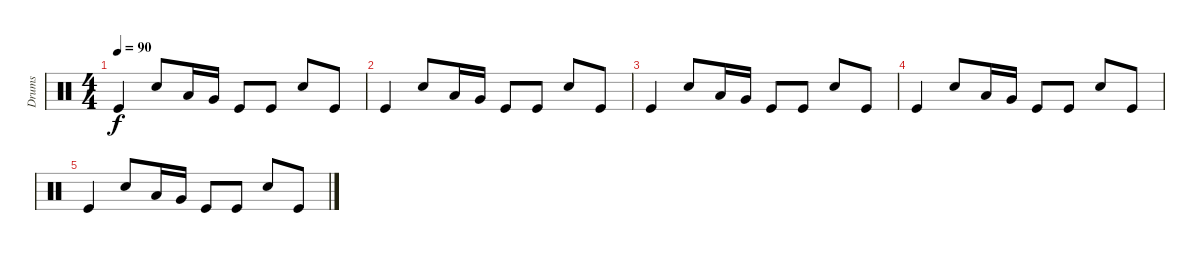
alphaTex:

\track ("Drums" "Drums") {instrument percussion}
\staff {score}
\articulation defaults
\ts (4 4)
\tempo 90
\clef neutral
\ks aminor "Kick (hit)".4{dy f} "Hand Clap (hit)".8 "Low Tom (hit)".16 "Very Low Tom (hit)".16 "Kick (hit)".8 "Kick (hit)".8 "Hand Clap (hit)".8 "Kick (hit)".8
|
"Kick (hit)".4 "Hand Clap (hit)".8 "Low Tom (hit)".16 "Very Low Tom (hit)".16 "Kick (hit)".8 "Kick (hit)".8 "Hand Clap (hit)".8 "Kick (hit)".8 |
"Kick (hit)".4 "Hand Clap (hit)".8 "Low Tom (hit)".16 "Very Low Tom (hit)".16 "Kick (hit)".8 "Kick (hit)".8 "Hand Clap (hit)".8 "Kick (hit)".8 |
"Kick (hit)".4 "Hand Clap (hit)".8 "Low Tom (hit)".16 "Very Low Tom (hit)".16 "Kick (hit)".8 "Kick (hit)".8 "Hand Clap (hit)".8 "Kick (hit)".8 |
"Kick (hit)".4 "Hand Clap (hit)".8 "Low Tom (hit)".16 "Very Low Tom (hit)".16 "Kick (hit)".8 "Kick (hit)".8 "Hand Clap (hit)".8 "Kick (hit)".8
